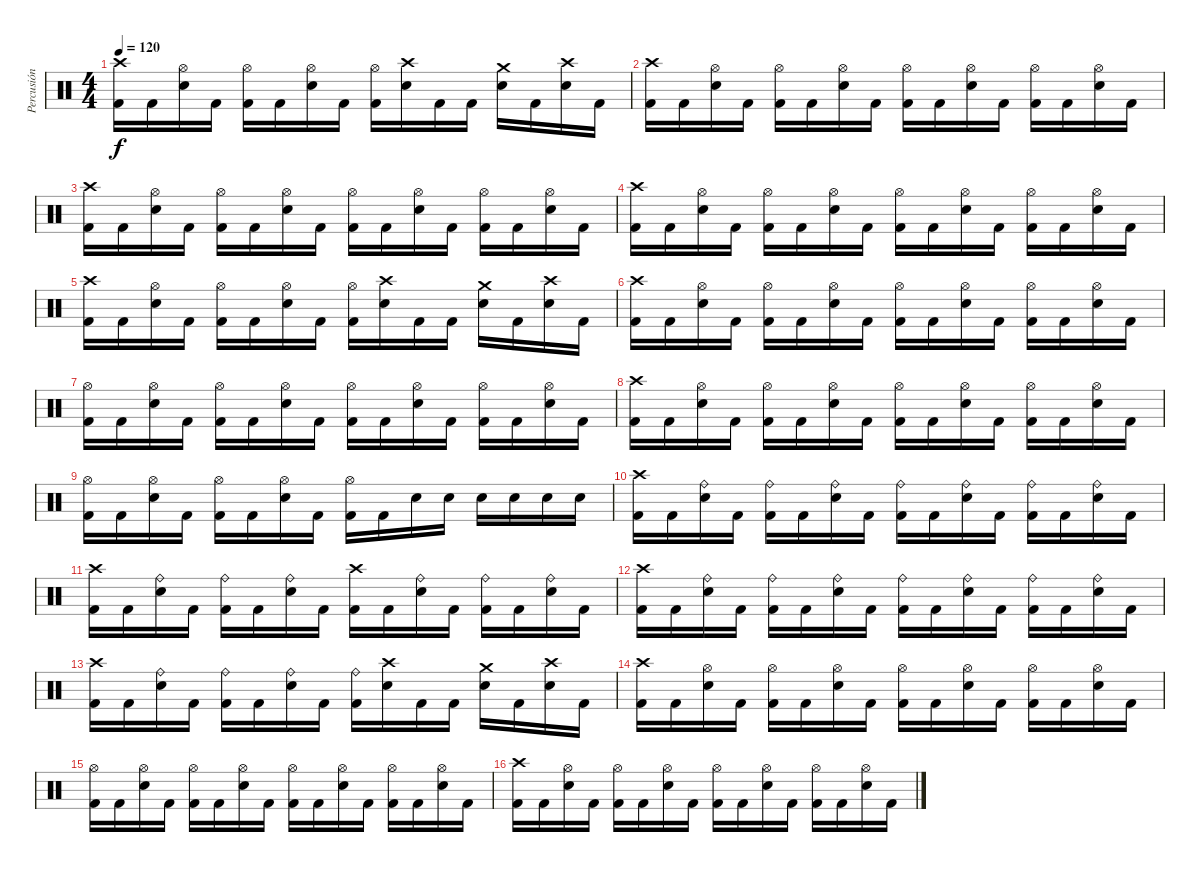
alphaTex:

\track ("Percusión" "Percusión") {instrument percussion}
\staff {score}
\articulation defaults
\ts (4 4)
\tempo 120
\clef neutral
\ks c
("Crash high (hit)" "Kick (hit) 2").16{dy f} "Kick (hit) 2".16 ("Hi-Hat (open)" "Electric Snare (hit)").16 "Kick (hit) 2".16 ("Hi-Hat (open)" "Kick (hit) 2").16 "Kick (hit) 2".16 ("Hi-Hat (open)" "Electric Snare (hit)").16 "Kick (hit) 2".16 ("Hi-Hat (open)" "Kick (hit) 2").16 ("Crash high (hit)" "Electric Snare (hit)").16 "Kick (hit) 2".16 "Kick (hit) 2".16 ("Crash medium (hit)" "Electric Snare (hit)").16 "Kick (hit) 2".16 ("Crash high (hit)" "Electric Snare (hit)").16 "Kick (hit) 2".16 |
("Crash high (hit)" "Kick (hit) 2").16 "Kick (hit) 2".16 ("Hi-Hat (open)" "Electric Snare (hit)").16 "Kick (hit) 2".16 ("Hi-Hat (open)" "Kick (hit) 2").16 "Kick (hit) 2".16 ("Hi-Hat (open)" "Electric Snare (hit)").16 "Kick (hit) 2".16 ("Hi-Hat (open)" "Kick (hit) 2").16 "Kick (hit) 2".16 ("Hi-Hat (open)" "Electric Snare (hit)").16 "Kick (hit) 2".16 ("Hi-Hat (open)" "Kick (hit) 2").16 "Kick (hit) 2".16 ("Hi-Hat (open)" "Electric Snare (hit)").16 "Kick (hit) 2".16 |
("Crash high (hit)" "Kick (hit) 2").16 "Kick (hit) 2".16 ("Hi-Hat (open)" "Electric Snare (hit)").16 "Kick (hit) 2".16 ("Hi-Hat (open)" "Kick (hit) 2").16 "Kick (hit) 2".16 ("Hi-Hat (open)" "Electric Snare (hit)").16 "Kick (hit) 2".16 ("Hi-Hat (open)" "Kick (hit) 2").16 "Kick (hit) 2".16 ("Hi-Hat (open)" "Electric Snare (hit)").16 "Kick (hit) 2".16 ("Hi-Hat (open)" "Kick (hit) 2").16 "Kick (hit) 2".16 ("Hi-Hat (open)" "Electric Snare (hit)").16 "Kick (hit) 2".16 |
("Crash high (hit)" "Kick (hit) 2").16 "Kick (hit) 2".16 ("Hi-Hat (open)" "Electric Snare (hit)").16 "Kick (hit) 2".16 ("Hi-Hat (open)" "Kick (hit) 2").16 "Kick (hit) 2".16 ("Hi-Hat (open)" "Electric Snare (hit)").16 "Kick (hit) 2".16 ("Hi-Hat (open)" "Kick (hit) 2").16 "Kick (hit) 2".16 ("Hi-Hat (open)" "Electric Snare (hit)").16 "Kick (hit) 2".16 ("Hi-Hat (open)" "Kick (hit) 2").16 "Kick (hit) 2".16 ("Hi-Hat (open)" "Electric Snare (hit)").16 "Kick (hit) 2".16 |
("Crash high (hit)" "Kick (hit) 2").16 "Kick (hit) 2".16 ("Hi-Hat (open)" "Electric Snare (hit)").16 "Kick (hit) 2".16 ("Hi-Hat (open)" "Kick (hit) 2").16 "Kick (hit) 2".16 ("Hi-Hat (open)" "Electric Snare (hit)").16 "Kick (hit) 2".16 ("Hi-Hat (open)" "Kick (hit) 2").16 ("Crash high (hit)" "Electric Snare (hit)").16 "Kick (hit) 2".16 "Kick (hit) 2".16 ("Crash medium (hit)" "Electric Snare (hit)").16 "Kick (hit) 2".16 ("Crash high (hit)" "Electric Snare (hit)").16 "Kick (hit) 2".16 |
("Crash high (hit)" "Kick (hit) 2").16 "Kick (hit) 2".16 ("Hi-Hat (open)" "Electric Snare (hit)").16 "Kick (hit) 2".16 ("Hi-Hat (open)" "Kick (hit) 2").16 "Kick (hit) 2".16 ("Hi-Hat (open)" "Electric Snare (hit)").16 "Kick (hit) 2".16 ("Hi-Hat (open)" "Kick (hit) 2").16 "Kick (hit) 2".16 ("Hi-Hat (open)" "Electric Snare (hit)").16 "Kick (hit) 2".16 ("Hi-Hat (open)" "Kick (hit) 2").16 "Kick (hit) 2".16 ("Hi-Hat (open)" "Electric Snare (hit)").16 "Kick (hit) 2".16 |
("Hi-Hat (open)" "Kick (hit) 2").16 "Kick (hit) 2".16 ("Hi-Hat (open)" "Electric Snare (hit)").16 "Kick (hit) 2".16 ("Hi-Hat (open)" "Kick (hit) 2").16 "Kick (hit) 2".16 ("Hi-Hat (open)" "Electric Snare (hit)").16 "Kick (hit) 2".16 ("Hi-Hat (open)" "Kick (hit) 2").16 "Kick (hit) 2".16 ("Hi-Hat (open)" "Electric Snare (hit)").16 "Kick (hit) 2".16 ("Hi-Hat (open)" "Kick (hit) 2").16 "Kick (hit) 2".16 ("Hi-Hat (open)" "Electric Snare (hit)").16 "Kick (hit) 2".16 |
("Crash high (hit)" "Kick (hit) 2").16 "Kick (hit) 2".16 ("Hi-Hat (open)" "Electric Snare (hit)").16 "Kick (hit) 2".16 ("Hi-Hat (open)" "Kick (hit) 2").16 "Kick (hit) 2".16 ("Hi-Hat (open)" "Electric Snare (hit)").16 "Kick (hit) 2".16 ("Hi-Hat (open)" "Kick (hit) 2").16 "Kick (hit) 2".16 ("Hi-Hat (open)" "Electric Snare (hit)").16 "Kick (hit) 2".16 ("Hi-Hat (open)" "Kick (hit) 2").16 "Kick (hit) 2".16 ("Hi-Hat (open)" "Electric Snare (hit)").16 "Kick (hit) 2".16 |
("Hi-Hat (open)" "Kick (hit) 2").16 "Kick (hit) 2".16 ("Hi-Hat (open)" "Electric Snare (hit)").16 "Kick (hit) 2".16 ("Hi-Hat (open)" "Kick (hit) 2").16 "Kick (hit) 2".16 ("Hi-Hat (open)" "Electric Snare (hit)").16 "Kick (hit) 2".16 ("Hi-Hat (open)" "Kick (hit) 2").16 "Kick (hit) 2".16 "Electric Snare (hit)".16 "Electric Snare (hit)".16 "Electric Snare (hit)".16 "Electric Snare (hit)".16 "Electric Snare (hit)".16 "Electric Snare (hit)".16 |
("Crash high (hit)" "Kick (hit) 2").16 "Kick (hit) 2".16 ("Ride (bell)" "Electric Snare (hit)").16 "Kick (hit) 2".16 ("Ride (bell)" "Kick (hit) 2").16 "Kick (hit) 2".16 ("Ride (bell)" "Electric Snare (hit)").16 "Kick (hit) 2".16 ("Ride (bell)" "Kick (hit) 2").16 "Kick (hit) 2".16 ("Ride (bell)" "Electric Snare (hit)").16 "Kick (hit) 2".16 ("Ride (bell)" "Kick (hit) 2").16 "Kick (hit) 2".16 ("Ride (bell)" "Electric Snare (hit)").16 "Kick (hit) 2".16 |
("Crash high (hit)" "Kick (hit) 2").16 "Kick (hit) 2".16 ("Ride (bell)" "Electric Snare (hit)").16 "Kick (hit) 2".16 ("Ride (bell)" "Kick (hit) 2").16 "Kick (hit) 2".16 ("Ride (bell)" "Electric Snare (hit)").16 "Kick (hit) 2".16 ("Crash high (hit)" "Kick (hit) 2").16 "Kick (hit) 2".16 ("Ride (bell)" "Electric Snare (hit)").16 "Kick (hit) 2".16 ("Ride (bell)" "Kick (hit) 2").16 "Kick (hit) 2".16 ("Ride (bell)" "Electric Snare (hit)").16 "Kick (hit) 2".16 |
("Crash high (hit)" "Kick (hit) 2").16 "Kick (hit) 2".16 ("Ride (bell)" "Electric Snare (hit)").16 "Kick (hit) 2".16 ("Ride (bell)" "Kick (hit) 2").16 "Kick (hit) 2".16 ("Ride (bell)" "Electric Snare (hit)").16 "Kick (hit) 2".16 ("Ride (bell)" "Kick (hit) 2").16 "Kick (hit) 2".16 ("Ride (bell)" "Electric Snare (hit)").16 "Kick (hit) 2".16 ("Ride (bell)" "Kick (hit) 2").16 "Kick (hit) 2".16 ("Ride (bell)" "Electric Snare (hit)").16 "Kick (hit) 2".16 |
("Crash high (hit)" "Kick (hit) 2").16 "Kick (hit) 2".16 ("Ride (bell)" "Electric Snare (hit)").16 "Kick (hit) 2".16 ("Ride (bell)" "Kick (hit) 2").16 "Kick (hit) 2".16 ("Ride (bell)" "Electric Snare (hit)").16 "Kick (hit) 2".16 ("Ride (bell)" "Kick (hit) 2").16 ("Crash high (hit)" "Electric Snare (hit)").16 "Kick (hit) 2".16 "Kick (hit) 2".16 ("Crash medium (hit)" "Electric Snare (hit)").16 "Kick (hit) 2".16 ("Crash high (hit)" "Electric Snare (hit)").16 "Kick (hit) 2".16 |
("Crash high (hit)" "Kick (hit) 2").16 "Kick (hit) 2".16 ("Hi-Hat (open)" "Electric Snare (hit)").16 "Kick (hit) 2".16 ("Hi-Hat (open)" "Kick (hit) 2").16 "Kick (hit) 2".16 ("Hi-Hat (open)" "Electric Snare (hit)").16 "Kick (hit) 2".16 ("Hi-Hat (open)" "Kick (hit) 2").16 "Kick (hit) 2".16 ("Hi-Hat (open)" "Electric Snare (hit)").16 "Kick (hit) 2".16 ("Hi-Hat (open)" "Kick (hit) 2").16 "Kick (hit) 2".16 ("Hi-Hat (open)" "Electric Snare (hit)").16 "Kick (hit) 2".16 |
("Hi-Hat (open)" "Kick (hit) 2").16 "Kick (hit) 2".16 ("Hi-Hat (open)" "Electric Snare (hit)").16 "Kick (hit) 2".16 ("Hi-Hat (open)" "Kick (hit) 2").16 "Kick (hit) 2".16 ("Hi-Hat (open)" "Electric Snare (hit)").16 "Kick (hit) 2".16 ("Hi-Hat (open)" "Kick (hit) 2").16 "Kick (hit) 2".16 ("Hi-Hat (open)" "Electric Snare (hit)").16 "Kick (hit) 2".16 ("Hi-Hat (open)" "Kick (hit) 2").16 "Kick (hit) 2".16 ("Hi-Hat (open)" "Electric Snare (hit)").16 "Kick (hit) 2".16 |
("Crash high (hit)" "Kick (hit) 2").16 "Kick (hit) 2".16 ("Hi-Hat (open)" "Electric Snare (hit)").16 "Kick (hit) 2".16 ("Hi-Hat (open)" "Kick (hit) 2").16 "Kick (hit) 2".16 ("Hi-Hat (open)" "Electric Snare (hit)").16 "Kick (hit) 2".16 ("Hi-Hat (open)" "Kick (hit) 2").16 "Kick (hit) 2".16 ("Hi-Hat (open)" "Electric Snare (hit)").16 "Kick (hit) 2".16 ("Hi-Hat (open)" "Kick (hit) 2").16 "Kick (hit) 2".16 ("Hi-Hat (open)" "Electric Snare (hit)").16 "Kick (hit) 2".16
